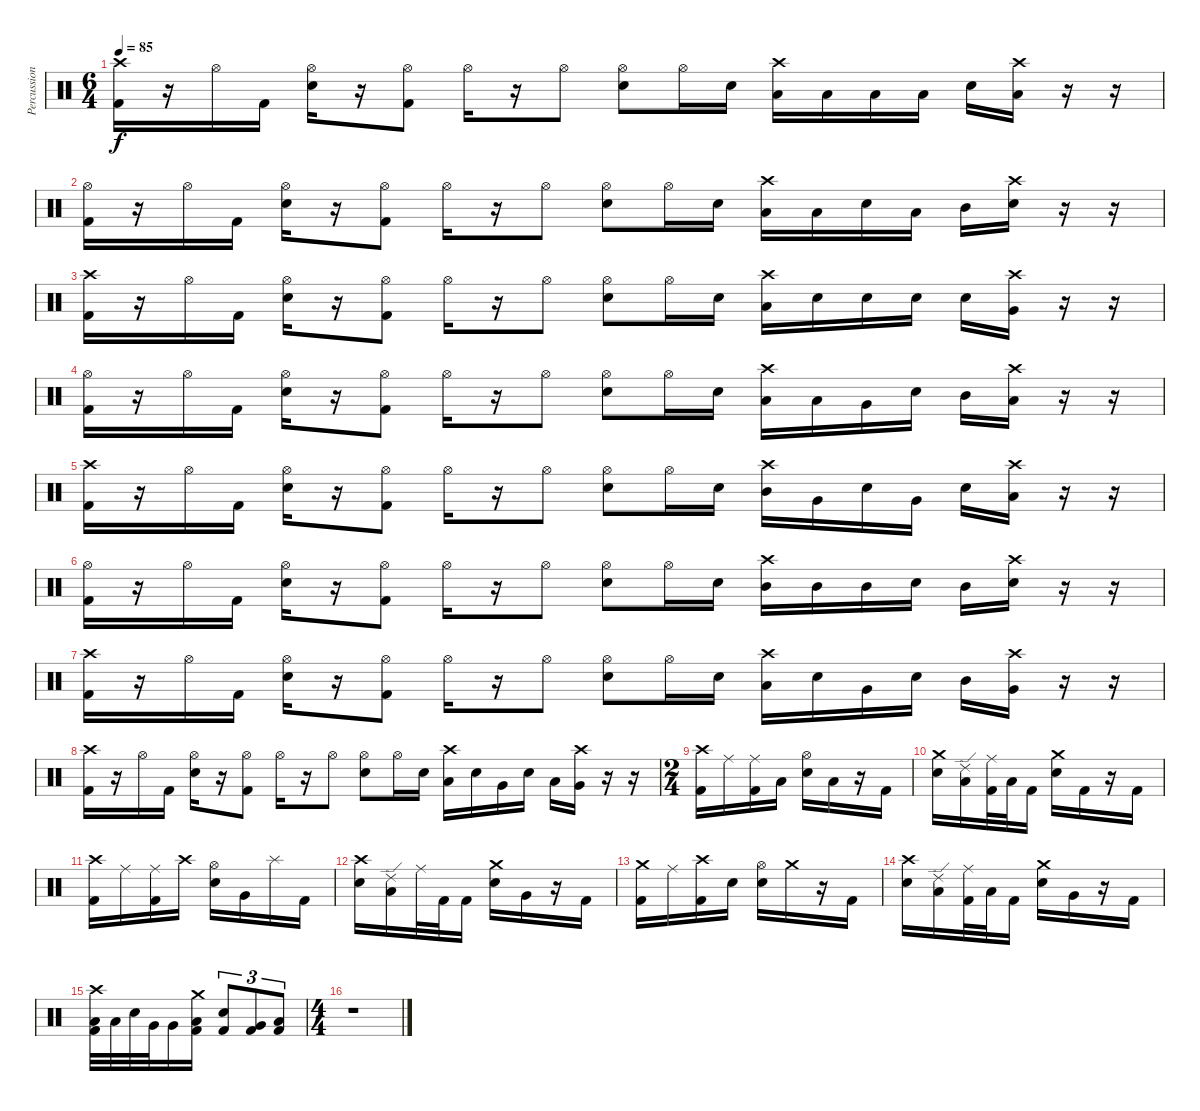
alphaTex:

\track ("Percussion" "Percussion") {instrument percussion}
\staff {score}
\articulation defaults
\ts (6 4)
\tempo 85
\clef neutral
\ks c
("Crash high (hit)" "Kick (hit) 2").16{dy f} r.16 "Hi-Hat (open)".16 "Kick (hit) 2".16 ("Hi-Hat (open)" "Electric Snare (hit)").16 r.16 ("Hi-Hat (open)" "Kick (hit) 2").8 "Hi-Hat (open)".16 r.16 "Hi-Hat (open)".8 ("Hi-Hat (open)" "Electric Snare (hit)").8 "Hi-Hat (open)".16 "Electric Snare (hit)".16 ("Crash high (hit)" "Low Tom (hit)").16 "Low Tom (hit)".16 "Low Tom (hit)".16 "Low Tom (hit)".16 "Electric Snare (hit)".16 ("Crash high (hit)" "Low Floor Tom (hit)").16 r.16 r.16 |
("Hi-Hat (open)" "Kick (hit) 2").16 r.16 "Hi-Hat (open)".16 "Kick (hit) 2".16 ("Hi-Hat (open)" "Electric Snare (hit)").16 r.16 ("Hi-Hat (open)" "Kick (hit) 2").8 "Hi-Hat (open)".16 r.16 "Hi-Hat (open)".8 ("Hi-Hat (open)" "Electric Snare (hit)").8 "Hi-Hat (open)".16 "Electric Snare (hit)".16 ("Crash high (hit)" "Low Tom (hit)").16 "Low Tom (hit)".16 "Electric Snare (hit)".16 "Low Tom (hit)".16 "Mid Tom (hit)".16 ("Crash high (hit)" "Electric Snare (hit)").16 r.16 r.16 |
("Crash high (hit)" "Kick (hit) 2").16 r.16 "Hi-Hat (open)".16 "Kick (hit) 2".16 ("Hi-Hat (open)" "Electric Snare (hit)").16 r.16 ("Hi-Hat (open)" "Kick (hit) 2").8 "Hi-Hat (open)".16 r.16 "Hi-Hat (open)".8 ("Hi-Hat (open)" "Electric Snare (hit)").8 "Hi-Hat (open)".16 "Electric Snare (hit)".16 ("Crash high (hit)" "Low Tom (hit)").16 "Electric Snare (hit)".16 "Electric Snare (hit)".16 "Electric Snare (hit)".16 "Electric Snare (hit)".16 ("Crash high (hit)" "Very Low Tom (hit)").16 r.16 r.16 |
("Hi-Hat (open)" "Kick (hit) 2").16 r.16 "Hi-Hat (open)".16 "Kick (hit) 2".16 ("Hi-Hat (open)" "Electric Snare (hit)").16 r.16 ("Hi-Hat (open)" "Kick (hit) 2").8 "Hi-Hat (open)".16 r.16 "Hi-Hat (open)".8 ("Hi-Hat (open)" "Electric Snare (hit)").8 "Hi-Hat (open)".16 "Electric Snare (hit)".16 ("Crash high (hit)" "Low Tom (hit)").16 "Low Tom (hit)".16 "Very Low Tom (hit)".16 "Electric Snare (hit)".16 "Mid Tom (hit)".16 ("Crash high (hit)" "Low Tom (hit)").16 r.16 r.16 |
("Crash high (hit)" "Kick (hit) 2").16 r.16 "Hi-Hat (open)".16 "Kick (hit) 2".16 ("Hi-Hat (open)" "Electric Snare (hit)").16 r.16 ("Hi-Hat (open)" "Kick (hit) 2").8 "Hi-Hat (open)".16 r.16 "Hi-Hat (open)".8 ("Hi-Hat (open)" "Electric Snare (hit)").8 "Hi-Hat (open)".16 "Electric Snare (hit)".16 ("Crash high (hit)" "Mid Tom (hit)").16 "Very Low Tom (hit)".16 "Electric Snare (hit)".16 "Very Low Tom (hit)".16 "Electric Snare (hit)".16 ("Crash high (hit)" "Low Floor Tom (hit)").16 r.16 r.16 |
("Hi-Hat (open)" "Kick (hit) 2").16 r.16 "Hi-Hat (open)".16 "Kick (hit) 2".16 ("Hi-Hat (open)" "Electric Snare (hit)").16 r.16 ("Hi-Hat (open)" "Kick (hit) 2").8 "Hi-Hat (open)".16 r.16 "Hi-Hat (open)".8 ("Hi-Hat (open)" "Electric Snare (hit)").8 "Hi-Hat (open)".16 "Electric Snare (hit)".16 ("Crash high (hit)" "Mid Tom (hit)").16 "Mid Tom (hit)".16 "Mid Tom (hit)".16 "Electric Snare (hit)".16 "Mid Tom (hit)".16 ("Crash high (hit)" "Electric Snare (hit)").16 r.16 r.16 |
("Crash high (hit)" "Kick (hit) 2").16 r.16 "Hi-Hat (open)".16 "Kick (hit) 2".16 ("Hi-Hat (open)" "Electric Snare (hit)").16 r.16 ("Hi-Hat (open)" "Kick (hit) 2").8 "Hi-Hat (open)".16 r.16 "Hi-Hat (open)".8 ("Hi-Hat (open)" "Electric Snare (hit)").8 "Hi-Hat (open)".16 "Electric Snare (hit)".16 ("Crash high (hit)" "Low Tom (hit)").16 "Electric Snare (hit)".16 "Very Low Tom (hit)".16 "Electric Snare (hit)".16 "Mid Tom (hit)".16 ("Crash high (hit)" "Very Low Tom (hit)").16 r.16 r.16 |
("Crash high (hit)" "Kick (hit) 2").16 r.16 "Hi-Hat (open)".16 "Kick (hit) 2".16 ("Hi-Hat (open)" "Electric Snare (hit)").16 r.16 ("Hi-Hat (open)" "Kick (hit) 2").8 "Hi-Hat (open)".16 r.16 "Hi-Hat (open)".8 ("Hi-Hat (open)" "Electric Snare (hit)").8 "Hi-Hat (open)".16 "Electric Snare (hit)".16 ("Crash high (hit)" "Low Tom (hit)").16 "Electric Snare (hit)".16 "Very Low Tom (hit)".16 "Electric Snare (hit)".16 "Low Floor Tom (hit)".16 ("Crash high (hit)" "Very Low Tom (hit)").16 r.16 r.16 |
\ts (2 4)
("Crash high (hit)" "Kick (hit) 2").16{volume 11} "Ride (middle)".16 ("Ride (middle)" "Kick (hit) 2").16 "Low Tom (hit)".16 ("Hi-Hat (open)" "Electric Snare (hit)").16 "Low Tom (hit)".16 r.16 "Kick (hit) 2".16 |
("Crash medium (hit)" "Electric Snare (hit)").16 ("Ride (edge) 2" "Low Floor Tom (hit)").16 ("Ride (middle)" "Kick (hit) 2").32 "Low Floor Tom (hit)".32 "Kick (hit) 2".16 ("Crash medium (hit)" "Electric Snare (hit)").16 "Kick (hit) 2".16 r.16 "Kick (hit) 2".16 |
("Crash high (hit)" "Kick (hit) 2").16 "Ride (middle)".16 ("Ride (middle)" "Kick (hit) 2").16 "Crash high (hit)".16 ("Hi-Hat (open)" "Electric Snare (hit)").16 "Very Low Tom (hit)".16 "Splash (hit)".16 "Kick (hit) 2".16 |
("Crash high (hit)" "Electric Snare (hit)").16 ("Ride (edge) 2" "Low Floor Tom (hit)").16 "Ride (middle)".32 "Kick (hit) 2".32 "Kick (hit) 2".16 ("Crash medium (hit)" "Electric Snare (hit)").16 "Very Low Tom (hit)".16 r.16 "Kick (hit) 2".16 |
("Crash medium (hit)" "Kick (hit) 2").16 "Ride (middle)".16 ("Crash high (hit)" "Kick (hit) 2").16 "Electric Snare (hit)".16 ("Hi-Hat (open)" "Electric Snare (hit)").16 "Crash medium (hit)".16 r.16 "Kick (hit) 2".16 |
("Crash high (hit)" "Electric Snare (hit)").16 ("Ride (edge) 2" "Low Floor Tom (hit)").16 ("Ride (middle)" "Kick (hit) 2").32 "Low Floor Tom (hit)".32 "Kick (hit) 2".16 ("Crash medium (hit)" "Electric Snare (hit)").16 "Very Low Tom (hit)".16 r.16 "Kick (hit) 2".16 |
("Crash high (hit)" "Kick (hit) 2" "Low Tom (hit)").32 "Low Tom (hit)".32 "Electric Snare (hit)".32 "Very Low Tom (hit)".32 "Very Low Tom (hit)".16 ("Crash medium (hit)" "Kick (hit) 2" "Low Floor Tom (hit)").16 ("Electric Snare (hit)" "Kick (hit) 2").8{tu (3 2)} ("Very Low Tom (hit)" "Kick (hit) 2").8{tu (3 2)} ("Low Floor Tom (hit)" "Kick (hit) 2").8{tu (3 2)} |
\ts (4 4)
r.1
